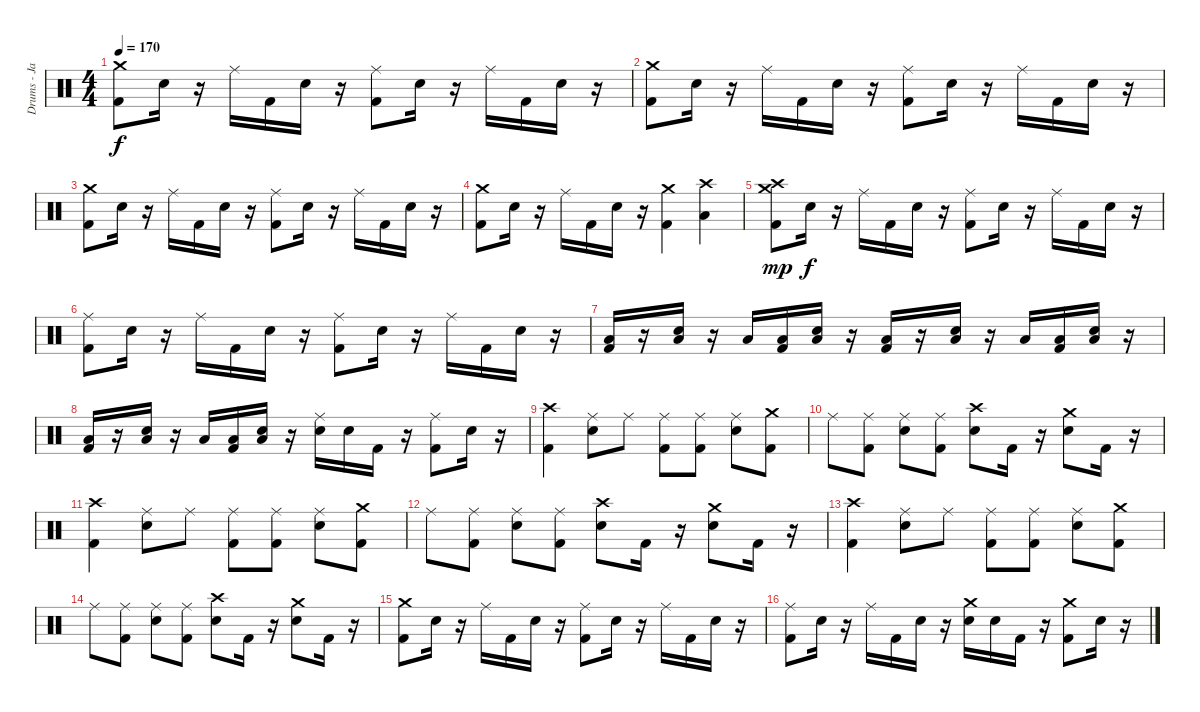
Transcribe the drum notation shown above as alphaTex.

\track ("Drums - Jasper Blazer" "Drums - Ja") {instrument percussion}
\staff {score}
\articulation defaults
\ts (4 4)
\tempo 170
\clef neutral
\ks c
("Kick (hit) 2" "Crash medium (hit)").8{dy f} "Electric Snare (hit)".16 r.16 "Ride (middle)".16 "Kick (hit) 2".16 "Electric Snare (hit)".16 r.16 ("Kick (hit) 2" "Ride (middle)").8 "Electric Snare (hit)".16 r.16 "Ride (middle)".16 "Kick (hit) 2".16 "Electric Snare (hit)".16 r.16 |
("Kick (hit) 2" "Crash medium (hit)").8 "Electric Snare (hit)".16 r.16 "Ride (middle)".16 "Kick (hit) 2".16 "Electric Snare (hit)".16 r.16 ("Kick (hit) 2" "Ride (middle)").8 "Electric Snare (hit)".16 r.16 "Ride (middle)".16 "Kick (hit) 2".16 "Electric Snare (hit)".16 r.16 |
("Kick (hit) 2" "Crash medium (hit)").8 "Electric Snare (hit)".16 r.16 "Ride (middle)".16 "Kick (hit) 2".16 "Electric Snare (hit)".16 r.16 ("Kick (hit) 2" "Ride (middle)").8 "Electric Snare (hit)".16 r.16 "Ride (middle)".16 "Kick (hit) 2".16 "Electric Snare (hit)".16 r.16 |
("Kick (hit) 2" "Crash medium (hit)").8 "Electric Snare (hit)".16 r.16 "Ride (middle)".16 "Kick (hit) 2".16 "Electric Snare (hit)".16 r.16 ("Kick (hit) 2" "Crash medium (hit)").4 ("Crash high (hit)" "Low Tom (hit)").4 |
("Crash high (hit)" "Kick (hit) 2" "Crash medium (hit)").8{dy mp} "Electric Snare (hit)".16{dy f} r.16 "Ride (middle)".16 "Kick (hit) 2".16 "Electric Snare (hit)".16 r.16 ("Kick (hit) 2" "Ride (middle)").8 "Electric Snare (hit)".16 r.16 "Ride (middle)".16 "Kick (hit) 2".16 "Electric Snare (hit)".16 r.16 |
("Kick (hit) 2" "Ride (middle)").8 "Electric Snare (hit)".16 r.16 "Ride (middle)".16 "Kick (hit) 2".16 "Electric Snare (hit)".16 r.16 ("Kick (hit) 2" "Ride (middle)").8 "Electric Snare (hit)".16 r.16 "Ride (middle)".16 "Kick (hit) 2".16 "Electric Snare (hit)".16 r.16 |
("Low Tom (hit)" "Kick (hit) 2").16 r.16 ("Low Tom (hit)" "Electric Snare (hit)").16 r.16 "Low Tom (hit)".16 ("Low Tom (hit)" "Kick (hit) 2").16 ("Low Tom (hit)" "Electric Snare (hit)").16 r.16 ("Low Tom (hit)" "Kick (hit) 2").16 r.16 ("Low Tom (hit)" "Electric Snare (hit)").16 r.16 "Low Tom (hit)".16 ("Low Tom (hit)" "Kick (hit) 2").16 ("Low Tom (hit)" "Electric Snare (hit)").16 r.16 |
("Low Tom (hit)" "Kick (hit) 2").16 r.16 ("Low Tom (hit)" "Electric Snare (hit)").16 r.16 "Low Tom (hit)".16 ("Low Tom (hit)" "Kick (hit) 2").16 ("Low Tom (hit)" "Electric Snare (hit)").16 r.16 ("Electric Snare (hit)" "Ride (middle)").16 "Electric Snare (hit)".16 "Kick (hit) 2".16 r.16 ("Kick (hit) 2" "Ride (middle)").8 "Electric Snare (hit)".16 r.16 |
("Kick (hit) 2" "Crash high (hit)").4 ("Electric Snare (hit)" "Ride (middle)").8 "Ride (middle)".8 ("Kick (hit) 2" "Ride (middle)").8 ("Kick (hit) 2" "Ride (middle)").8 ("Electric Snare (hit)" "Ride (middle)").8 ("Kick (hit) 2" "Crash medium (hit)").8 |
"Ride (middle)".8 ("Kick (hit) 2" "Ride (middle)").8 ("Electric Snare (hit)" "Ride (middle)").8 ("Kick (hit) 2" "Ride (middle)").8 ("Electric Snare (hit)" "Crash high (hit)").8 "Kick (hit) 2".16 r.16 ("Electric Snare (hit)" "Crash medium (hit)").8 "Kick (hit) 2".16 r.16 |
("Kick (hit) 2" "Crash high (hit)").4 ("Electric Snare (hit)" "Ride (middle)").8 "Ride (middle)".8 ("Kick (hit) 2" "Ride (middle)").8 ("Kick (hit) 2" "Ride (middle)").8 ("Electric Snare (hit)" "Ride (middle)").8 ("Kick (hit) 2" "Crash medium (hit)").8 |
"Ride (middle)".8 ("Kick (hit) 2" "Ride (middle)").8 ("Electric Snare (hit)" "Ride (middle)").8 ("Kick (hit) 2" "Ride (middle)").8 ("Electric Snare (hit)" "Crash high (hit)").8 "Kick (hit) 2".16 r.16 ("Electric Snare (hit)" "Crash medium (hit)").8 "Kick (hit) 2".16 r.16 |
("Kick (hit) 2" "Crash high (hit)").4 ("Electric Snare (hit)" "Ride (middle)").8 "Ride (middle)".8 ("Kick (hit) 2" "Ride (middle)").8 ("Kick (hit) 2" "Ride (middle)").8 ("Electric Snare (hit)" "Ride (middle)").8 ("Kick (hit) 2" "Crash medium (hit)").8 |
"Ride (middle)".8 ("Kick (hit) 2" "Ride (middle)").8 ("Electric Snare (hit)" "Ride (middle)").8 ("Kick (hit) 2" "Ride (middle)").8 ("Electric Snare (hit)" "Crash high (hit)").8 "Kick (hit) 2".16 r.16 ("Electric Snare (hit)" "Crash medium (hit)").8 "Kick (hit) 2".16 r.16 |
("Kick (hit) 2" "Crash medium (hit)").8 "Electric Snare (hit)".16 r.16 "Ride (middle)".16 "Kick (hit) 2".16 "Electric Snare (hit)".16 r.16 ("Kick (hit) 2" "Ride (middle)").8 "Electric Snare (hit)".16 r.16 "Ride (middle)".16 "Kick (hit) 2".16 "Electric Snare (hit)".16 r.16 |
("Kick (hit) 2" "Ride (middle)").8 "Electric Snare (hit)".16 r.16 "Ride (middle)".16 "Kick (hit) 2".16 "Electric Snare (hit)".16 r.16 ("Crash medium (hit)" "Electric Snare (hit)").16 "Electric Snare (hit)".16 "Kick (hit) 2".16 r.16 ("Crash medium (hit)" "Kick (hit) 2").8 "Electric Snare (hit)".16 r.16
